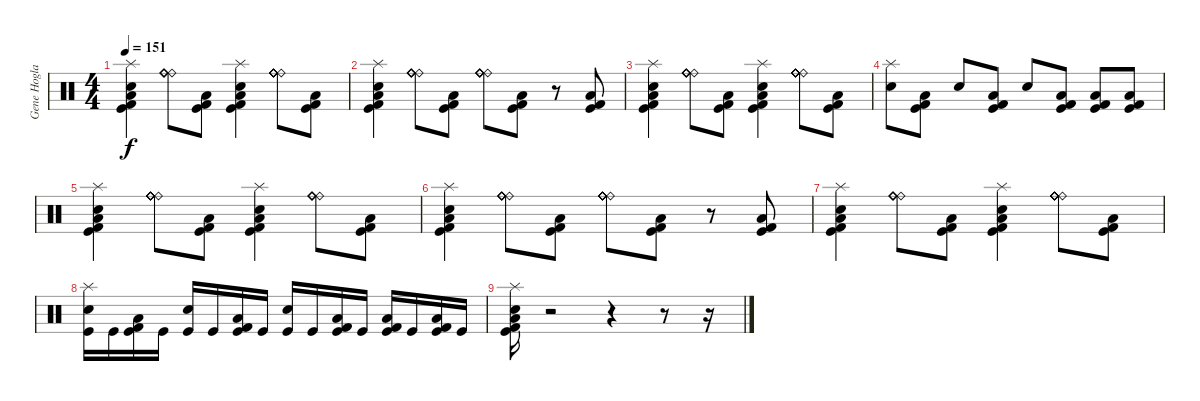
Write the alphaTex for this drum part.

\track ("Gene Hoglan" "Gene Hogla") {instrument percussion}
\staff {score}
\articulation defaults
\ts (4 4)
\tempo 151
\clef neutral
\ks c
("Splash (hit)" "Low Floor Tom (hit)" "Kick (hit) 2" "Kick (hit)" "Snare (hit) 2").4{dy f} ("Ride (bell)" "Ride (bell)" "Ride (bell)" "Ride (bell)" "Ride (bell)" "Ride (bell)").8 ("Low Floor Tom (hit)" "Kick (hit) 2" "Kick (hit)").8 ("Splash (hit)" "Kick (hit)" "Kick (hit) 2" "Low Floor Tom (hit)" "Snare (hit) 2").4 ("Ride (bell)" "Ride (bell)" "Ride (bell)" "Ride (bell)" "Ride (bell)" "Ride (bell)").8 ("Kick (hit)" "Kick (hit) 2" "Low Floor Tom (hit)").8 |
("Splash (hit)" "Low Floor Tom (hit)" "Kick (hit) 2" "Kick (hit)" "Snare (hit) 2").4 ("Ride (bell)" "Ride (bell)" "Ride (bell)" "Ride (bell)" "Ride (bell)" "Ride (bell)").8 ("Kick (hit)" "Kick (hit) 2" "Low Floor Tom (hit)").8 ("Ride (bell)" "Ride (bell)" "Ride (bell)" "Ride (bell)" "Ride (bell)" "Ride (bell)").8 ("Kick (hit)" "Kick (hit) 2" "Low Floor Tom (hit)").8 r.8 ("Kick (hit)" "Kick (hit) 2" "Low Floor Tom (hit)").8 |
("Splash (hit)" "Kick (hit)" "Kick (hit) 2" "Low Floor Tom (hit)" "Snare (hit) 2").4 ("Ride (bell)" "Ride (bell)" "Ride (bell)" "Ride (bell)" "Ride (bell)" "Ride (bell)").8 ("Kick (hit)" "Kick (hit) 2" "Low Floor Tom (hit)").8 ("Splash (hit)" "Kick (hit)" "Kick (hit) 2" "Low Floor Tom (hit)" "Snare (hit) 2").4 ("Ride (bell)" "Ride (bell)" "Ride (bell)" "Ride (bell)" "Ride (bell)" "Ride (bell)").8 ("Kick (hit)" "Kick (hit) 2" "Low Floor Tom (hit)").8 |
("Snare (hit) 2" "Splash (hit)").8 ("Low Floor Tom (hit)" "Kick (hit) 2" "Kick (hit)").8 "Snare (hit) 2".8 ("Low Floor Tom (hit)" "Kick (hit) 2" "Kick (hit)").8 "Snare (hit) 2".8 ("Low Floor Tom (hit)" "Kick (hit) 2" "Kick (hit)").8 ("Low Floor Tom (hit)" "Kick (hit) 2" "Kick (hit)").8 ("Low Floor Tom (hit)" "Kick (hit) 2" "Kick (hit)").8 |
("Splash (hit)" "Low Floor Tom (hit)" "Kick (hit) 2" "Kick (hit)" "Snare (hit) 2").4 ("Ride (bell)" "Ride (bell)" "Ride (bell)" "Ride (bell)" "Ride (bell)" "Ride (bell)").8 ("Low Floor Tom (hit)" "Kick (hit) 2" "Kick (hit)").8 ("Splash (hit)" "Kick (hit)" "Kick (hit) 2" "Low Floor Tom (hit)" "Snare (hit) 2").4 ("Ride (bell)" "Ride (bell)" "Ride (bell)" "Ride (bell)" "Ride (bell)" "Ride (bell)").8 ("Kick (hit)" "Kick (hit) 2" "Low Floor Tom (hit)").8 |
("Splash (hit)" "Low Floor Tom (hit)" "Kick (hit) 2" "Kick (hit)" "Snare (hit) 2").4 ("Ride (bell)" "Ride (bell)" "Ride (bell)" "Ride (bell)" "Ride (bell)" "Ride (bell)").8 ("Kick (hit)" "Kick (hit) 2" "Low Floor Tom (hit)").8 ("Ride (bell)" "Ride (bell)" "Ride (bell)" "Ride (bell)" "Ride (bell)" "Ride (bell)").8 ("Kick (hit)" "Kick (hit) 2" "Low Floor Tom (hit)").8 r.8 ("Kick (hit)" "Kick (hit) 2" "Low Floor Tom (hit)").8 |
("Splash (hit)" "Kick (hit)" "Kick (hit) 2" "Low Floor Tom (hit)" "Snare (hit) 2").4 ("Ride (bell)" "Ride (bell)" "Ride (bell)" "Ride (bell)" "Ride (bell)" "Ride (bell)").8 ("Kick (hit)" "Kick (hit) 2" "Low Floor Tom (hit)").8 ("Splash (hit)" "Kick (hit)" "Kick (hit) 2" "Low Floor Tom (hit)" "Snare (hit) 2").4 ("Ride (bell)" "Ride (bell)" "Ride (bell)" "Ride (bell)" "Ride (bell)" "Ride (bell)").8 ("Kick (hit)" "Kick (hit) 2" "Low Floor Tom (hit)").8 |
("Kick (hit)" "Snare (hit) 2" "Splash (hit)").16 "Kick (hit)".16 ("Low Floor Tom (hit)" "Kick (hit) 2" "Kick (hit)").16 "Kick (hit)".16 ("Kick (hit)" "Snare (hit) 2").16 "Kick (hit)".16 ("Low Floor Tom (hit)" "Kick (hit) 2" "Kick (hit)").16 "Kick (hit)".16 ("Kick (hit)" "Snare (hit) 2").16 "Kick (hit)".16 ("Low Floor Tom (hit)" "Kick (hit) 2" "Kick (hit)").16 "Kick (hit)".16 ("Low Floor Tom (hit)" "Kick (hit) 2" "Kick (hit)").16 "Kick (hit)".16 ("Low Floor Tom (hit)" "Kick (hit) 2" "Kick (hit)").16 "Kick (hit)".16 |
("Snare (hit) 2" "Kick (hit)" "Kick (hit) 2" "Low Floor Tom (hit)" "Splash (hit)").16 r.2 r.4 r.8 r.16
